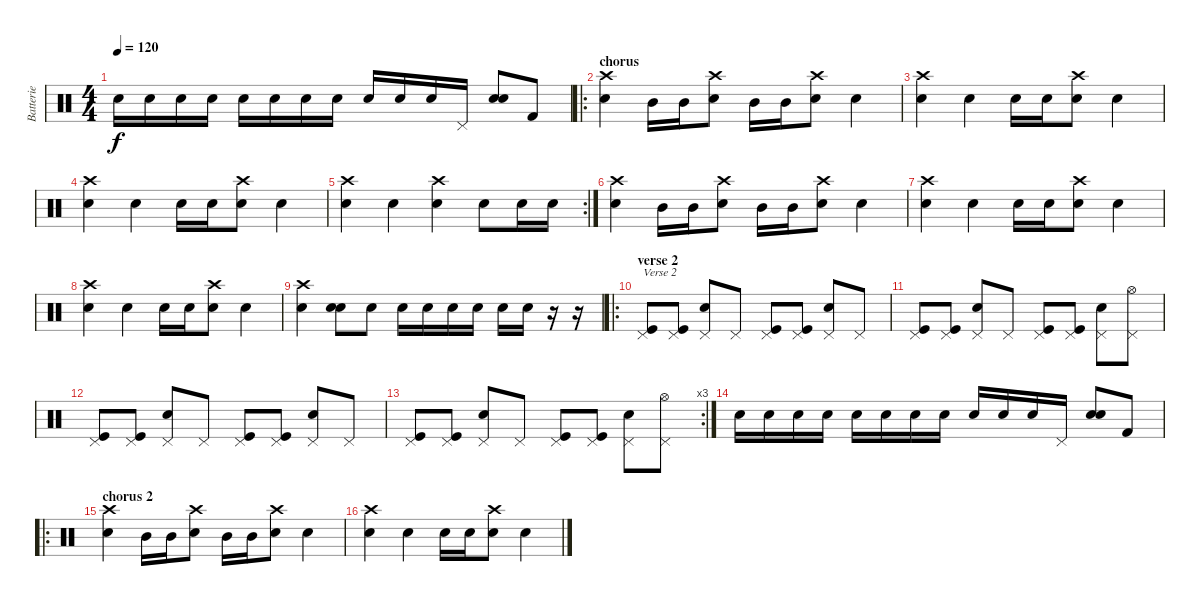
\track ("Batterie" "Batterie") {instrument percussion}
\staff {score}
\articulation defaults
\ts (4 4)
\tempo 120
\clef neutral
\ks c "Snare (hit) 2".16{dy f} "Snare (hit) 2".16 "Snare (hit) 2".16 "Snare (hit) 2".16 "Snare (hit) 2".16 "Snare (hit) 2".16 "Snare (hit) 2".16 "Snare (hit) 2".16 "Snare (hit) 2".16 "Snare (hit) 2".16 "Snare (hit) 2".16 "Pedal Hi-Hat (hit)".16
("Electric Snare (hit)" "Snare (hit) 2").8 "Kick (hit) 2".8 |
\ro
\section ("" "chorus")
("Crash high (hit)" "Electric Snare (hit)").4 "Mid Tom (hit)".16 "Mid Tom (hit)".16 ("Crash high (hit)" "Electric Snare (hit)").8 "Mid Tom (hit)".16 "Mid Tom (hit)".16 ("Crash high (hit)" "Electric Snare (hit)").8 "Electric Snare (hit)".4 |
("Crash high (hit)" "Electric Snare (hit)").4 "Electric Snare (hit)".4 "Electric Snare (hit)".16 "Electric Snare (hit)".16 ("Crash high (hit)" "Electric Snare (hit)").8 "Electric Snare (hit)".4 |
("Crash high (hit)" "Electric Snare (hit)").4 "Electric Snare (hit)".4 "Electric Snare (hit)".16 "Electric Snare (hit)".16 ("Crash high (hit)" "Electric Snare (hit)").8 "Electric Snare (hit)".4 |
\rc 2
("Crash high (hit)" "Electric Snare (hit)").4 "Electric Snare (hit)".4 ("Crash high (hit)" "Electric Snare (hit)").4 "Electric Snare (hit)".8 "Electric Snare (hit)".16 "Electric Snare (hit)".16 |
("Crash high (hit)" "Electric Snare (hit)").4 "Mid Tom (hit)".16 "Mid Tom (hit)".16 ("Crash high (hit)" "Electric Snare (hit)").8 "Mid Tom (hit)".16 "Mid Tom (hit)".16 ("Crash high (hit)" "Electric Snare (hit)").8 "Electric Snare (hit)".4 |
("Crash high (hit)" "Electric Snare (hit)").4 "Electric Snare (hit)".4 "Electric Snare (hit)".16 "Electric Snare (hit)".16 ("Crash high (hit)" "Electric Snare (hit)").8 "Electric Snare (hit)".4 |
("Crash high (hit)" "Electric Snare (hit)").4 "Electric Snare (hit)".4 "Electric Snare (hit)".16 "Electric Snare (hit)".16 ("Crash high (hit)" "Electric Snare (hit)").8 "Electric Snare (hit)".4 |
("Crash high (hit)" "Electric Snare (hit)").4 ("Snare (hit) 2" "Electric Snare (hit)").8 "Snare (hit) 2".8 "Snare (hit) 2".16 "Snare (hit) 2".16 "Snare (hit) 2".16 "Snare (hit) 2".16 "Snare (hit) 2".16 "Snare (hit) 2".16 r.16 r.16 |
\ro
\section ("" "verse 2")
("Pedal Hi-Hat (hit)" "Kick (hit)").8{txt "Verse 2"} ("Pedal Hi-Hat (hit)" "Kick (hit)").8 ("Pedal Hi-Hat (hit)" "Snare (hit) 2").8 "Pedal Hi-Hat (hit)".8 ("Pedal Hi-Hat (hit)" "Kick (hit)").8 ("Pedal Hi-Hat (hit)" "Kick (hit)").8 ("Pedal Hi-Hat (hit)" "Snare (hit) 2").8 "Pedal Hi-Hat (hit)".8 |
("Pedal Hi-Hat (hit)" "Kick (hit)").8 ("Pedal Hi-Hat (hit)" "Kick (hit)").8 ("Pedal Hi-Hat (hit)" "Snare (hit) 2").8 "Pedal Hi-Hat (hit)".8 ("Pedal Hi-Hat (hit)" "Kick (hit)").8 ("Pedal Hi-Hat (hit)" "Kick (hit)").8 ("Pedal Hi-Hat (hit)" "Snare (hit) 2").8 ("Pedal Hi-Hat (hit)" "Hi-Hat (open)").8 |
("Pedal Hi-Hat (hit)" "Kick (hit)").8 ("Pedal Hi-Hat (hit)" "Kick (hit)").8 ("Pedal Hi-Hat (hit)" "Snare (hit) 2").8 "Pedal Hi-Hat (hit)".8 ("Pedal Hi-Hat (hit)" "Kick (hit)").8 ("Pedal Hi-Hat (hit)" "Kick (hit)").8 ("Pedal Hi-Hat (hit)" "Snare (hit) 2").8 "Pedal Hi-Hat (hit)".8 |
\rc 3
("Pedal Hi-Hat (hit)" "Kick (hit)").8 ("Pedal Hi-Hat (hit)" "Kick (hit)").8 ("Pedal Hi-Hat (hit)" "Snare (hit) 2").8 "Pedal Hi-Hat (hit)".8 ("Pedal Hi-Hat (hit)" "Kick (hit)").8 ("Pedal Hi-Hat (hit)" "Kick (hit)").8 ("Pedal Hi-Hat (hit)" "Snare (hit) 2").8 ("Pedal Hi-Hat (hit)" "Hi-Hat (open)").8 |
"Snare (hit) 2".16 "Snare (hit) 2".16 "Snare (hit) 2".16 "Snare (hit) 2".16 "Snare (hit) 2".16 "Snare (hit) 2".16 "Snare (hit) 2".16 "Snare (hit) 2".16 "Snare (hit) 2".16 "Snare (hit) 2".16 "Snare (hit) 2".16 "Pedal Hi-Hat (hit)".16 ("Electric Snare (hit)" "Snare (hit) 2").8 "Kick (hit) 2".8 |
\ro
\section ("" "chorus 2")
("Crash high (hit)" "Electric Snare (hit)").4 "Mid Tom (hit)".16 "Mid Tom (hit)".16 ("Crash high (hit)" "Electric Snare (hit)").8 "Mid Tom (hit)".16 "Mid Tom (hit)".16 ("Crash high (hit)" "Electric Snare (hit)").8 "Electric Snare (hit)".4 |
("Crash high (hit)" "Electric Snare (hit)").4 "Electric Snare (hit)".4 "Electric Snare (hit)".16 "Electric Snare (hit)".16 ("Crash high (hit)" "Electric Snare (hit)").8 "Electric Snare (hit)".4
